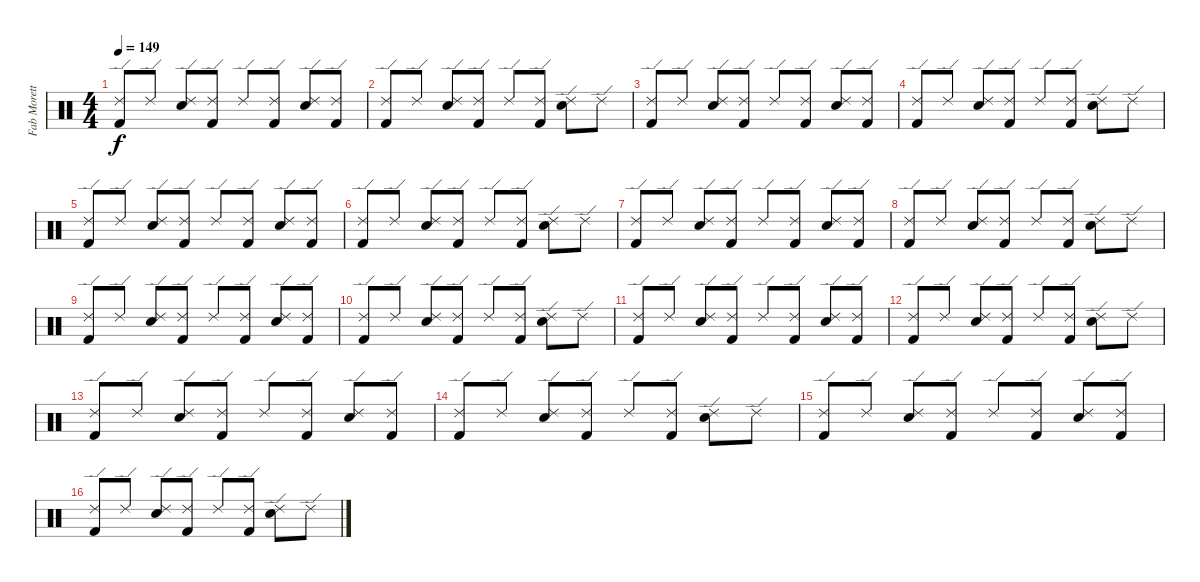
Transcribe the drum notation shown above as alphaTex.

\track ("Fab Moretti" "Fab Morett") {instrument percussion}
\staff {score}
\articulation defaults
\ts (4 4)
\tempo 149
\clef neutral
\ks c
("Ride (edge) 2" "Kick (hit) 2").8{dy f} "Ride (edge) 2".8 ("Ride (edge) 2" "Electric Snare (hit)").8 ("Ride (edge) 2" "Kick (hit) 2").8 "Ride (edge) 2".8 ("Ride (edge) 2" "Kick (hit) 2").8 ("Ride (edge) 2" "Electric Snare (hit)").8 ("Ride (edge) 2" "Kick (hit) 2").8 |
("Ride (edge) 2" "Kick (hit) 2").8 "Ride (edge) 2".8 ("Ride (edge) 2" "Electric Snare (hit)").8 ("Ride (edge) 2" "Kick (hit) 2").8 "Ride (edge) 2".8 ("Ride (edge) 2" "Kick (hit) 2").8 ("Ride (edge) 2" "Electric Snare (hit)").8 "Ride (edge) 2".8 |
("Ride (edge) 2" "Kick (hit) 2").8 "Ride (edge) 2".8 ("Ride (edge) 2" "Electric Snare (hit)").8 ("Ride (edge) 2" "Kick (hit) 2").8 "Ride (edge) 2".8 ("Ride (edge) 2" "Kick (hit) 2").8 ("Ride (edge) 2" "Electric Snare (hit)").8 ("Ride (edge) 2" "Kick (hit) 2").8 |
("Ride (edge) 2" "Kick (hit) 2").8 "Ride (edge) 2".8 ("Ride (edge) 2" "Electric Snare (hit)").8 ("Ride (edge) 2" "Kick (hit) 2").8 "Ride (edge) 2".8 ("Ride (edge) 2" "Kick (hit) 2").8 ("Ride (edge) 2" "Electric Snare (hit)").8 "Ride (edge) 2".8 |
("Ride (edge) 2" "Kick (hit) 2").8 "Ride (edge) 2".8 ("Ride (edge) 2" "Electric Snare (hit)").8 ("Ride (edge) 2" "Kick (hit) 2").8 "Ride (edge) 2".8 ("Ride (edge) 2" "Kick (hit) 2").8 ("Ride (edge) 2" "Electric Snare (hit)").8 ("Ride (edge) 2" "Kick (hit) 2").8 |
("Ride (edge) 2" "Kick (hit) 2").8 "Ride (edge) 2".8 ("Ride (edge) 2" "Electric Snare (hit)").8 ("Ride (edge) 2" "Kick (hit) 2").8 "Ride (edge) 2".8 ("Ride (edge) 2" "Kick (hit) 2").8 ("Ride (edge) 2" "Electric Snare (hit)").8 "Ride (edge) 2".8 |
("Ride (edge) 2" "Kick (hit) 2").8 "Ride (edge) 2".8 ("Ride (edge) 2" "Electric Snare (hit)").8 ("Ride (edge) 2" "Kick (hit) 2").8 "Ride (edge) 2".8 ("Ride (edge) 2" "Kick (hit) 2").8 ("Ride (edge) 2" "Electric Snare (hit)").8 ("Ride (edge) 2" "Kick (hit) 2").8 |
("Ride (edge) 2" "Kick (hit) 2").8 "Ride (edge) 2".8 ("Ride (edge) 2" "Electric Snare (hit)").8 ("Ride (edge) 2" "Kick (hit) 2").8 "Ride (edge) 2".8 ("Ride (edge) 2" "Kick (hit) 2").8 ("Ride (edge) 2" "Electric Snare (hit)").8 "Ride (edge) 2".8 |
("Ride (edge) 2" "Kick (hit) 2").8 "Ride (edge) 2".8 ("Ride (edge) 2" "Electric Snare (hit)").8 ("Ride (edge) 2" "Kick (hit) 2").8 "Ride (edge) 2".8 ("Ride (edge) 2" "Kick (hit) 2").8 ("Ride (edge) 2" "Electric Snare (hit)").8 ("Ride (edge) 2" "Kick (hit) 2").8 |
("Ride (edge) 2" "Kick (hit) 2").8 "Ride (edge) 2".8 ("Ride (edge) 2" "Electric Snare (hit)").8 ("Ride (edge) 2" "Kick (hit) 2").8 "Ride (edge) 2".8 ("Ride (edge) 2" "Kick (hit) 2").8 ("Ride (edge) 2" "Electric Snare (hit)").8 "Ride (edge) 2".8 |
("Ride (edge) 2" "Kick (hit) 2").8 "Ride (edge) 2".8 ("Ride (edge) 2" "Electric Snare (hit)").8 ("Ride (edge) 2" "Kick (hit) 2").8 "Ride (edge) 2".8 ("Ride (edge) 2" "Kick (hit) 2").8 ("Ride (edge) 2" "Electric Snare (hit)").8 ("Ride (edge) 2" "Kick (hit) 2").8 |
("Ride (edge) 2" "Kick (hit) 2").8 "Ride (edge) 2".8 ("Ride (edge) 2" "Electric Snare (hit)").8 ("Ride (edge) 2" "Kick (hit) 2").8 "Ride (edge) 2".8 ("Ride (edge) 2" "Kick (hit) 2").8 ("Ride (edge) 2" "Electric Snare (hit)").8 "Ride (edge) 2".8 |
("Ride (edge) 2" "Kick (hit) 2").8 "Ride (edge) 2".8 ("Ride (edge) 2" "Electric Snare (hit)").8 ("Ride (edge) 2" "Kick (hit) 2").8 "Ride (edge) 2".8 ("Ride (edge) 2" "Kick (hit) 2").8 ("Ride (edge) 2" "Electric Snare (hit)").8 ("Ride (edge) 2" "Kick (hit) 2").8 |
("Ride (edge) 2" "Kick (hit) 2").8 "Ride (edge) 2".8 ("Ride (edge) 2" "Electric Snare (hit)").8 ("Ride (edge) 2" "Kick (hit) 2").8 "Ride (edge) 2".8 ("Ride (edge) 2" "Kick (hit) 2").8 ("Ride (edge) 2" "Electric Snare (hit)").8 "Ride (edge) 2".8 |
("Ride (edge) 2" "Kick (hit) 2").8 "Ride (edge) 2".8 ("Ride (edge) 2" "Electric Snare (hit)").8 ("Ride (edge) 2" "Kick (hit) 2").8 "Ride (edge) 2".8 ("Ride (edge) 2" "Kick (hit) 2").8 ("Ride (edge) 2" "Electric Snare (hit)").8 ("Ride (edge) 2" "Kick (hit) 2").8 |
("Ride (edge) 2" "Kick (hit) 2").8 "Ride (edge) 2".8 ("Ride (edge) 2" "Electric Snare (hit)").8 ("Ride (edge) 2" "Kick (hit) 2").8 "Ride (edge) 2".8 ("Ride (edge) 2" "Kick (hit) 2").8 ("Ride (edge) 2" "Electric Snare (hit)").8 "Ride (edge) 2".8
